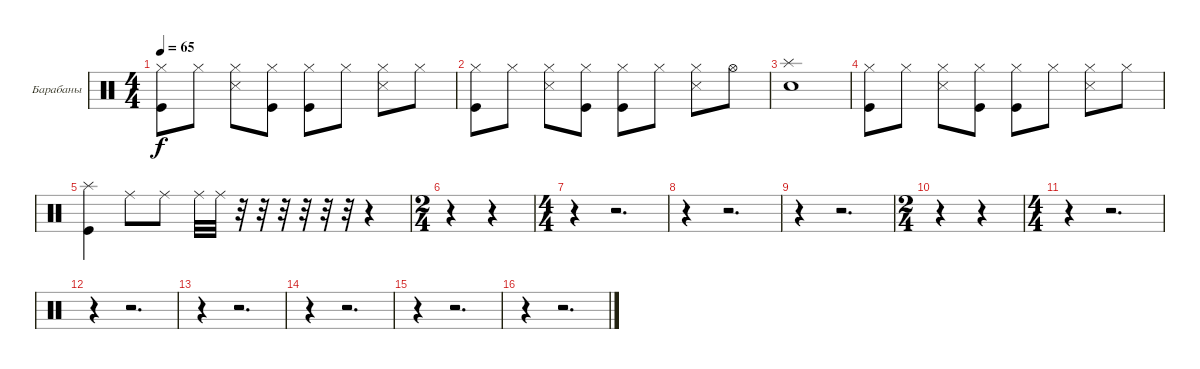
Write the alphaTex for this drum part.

\bracketExtendMode groupsimilarinstruments
\firstSystemTrackNameOrientation horizontal
\otherSystemsTrackNameOrientation horizontal
\track ("Ударные" "Барабаны") {instrument percussion}
\staff {score}
\articulation defaults
\ts (4 4)
\tempo 65
\clef neutral
\ks c
("Hi-Hat (closed)" "Kick (hit)").8{dy f} "Hi-Hat (closed)".8 ("Hi-Hat (closed)" "Snare (side stick) 3").8 ("Hi-Hat (closed)" "Kick (hit)").8 ("Hi-Hat (closed)" "Kick (hit)").8 "Hi-Hat (closed)".8 ("Hi-Hat (closed)" "Snare (side stick) 3").8 "Hi-Hat (closed)".8 |
("Hi-Hat (closed)" "Kick (hit)").8 "Hi-Hat (closed)".8 ("Hi-Hat (closed)" "Snare (side stick) 3").8 ("Hi-Hat (closed)" "Kick (hit)").8 ("Hi-Hat (closed)" "Kick (hit)").8 "Hi-Hat (closed)".8 ("Hi-Hat (closed)" "Snare (side stick) 3").8 "Hi-Hat (open)".8 |
("Splash (hit)" "Snare (hit) 2").1 |
("Hi-Hat (closed)" "Kick (hit)").8 "Hi-Hat (closed)".8 ("Hi-Hat (closed)" "Snare (side stick) 3").8 ("Hi-Hat (closed)" "Kick (hit)").8 ("Hi-Hat (closed)" "Kick (hit)").8 "Hi-Hat (closed)".8 ("Hi-Hat (closed)" "Snare (side stick) 3").8 "Hi-Hat (closed)".8 |
("Splash (hit)" "Kick (hit)").4 "Ride (middle)".8 "Ride (middle)".8 "Ride (middle)".32 "Ride (middle)".32 r.32 r.32 r.32 r.32 r.32 r.32 r.4 |
\ts (2 4)
r.4 r.4 |
\ts (4 4)
r.4 r.2{d} |
r.4 r.2{d} |
r.4 r.2{d} |
\ts (2 4)
r.4 r.4 |
\ts (4 4)
r.4 r.2{d} |
r.4 r.2{d} |
r.4 r.2{d} |
r.4 r.2{d} |
r.4 r.2{d} |
r.4 r.2{d}
